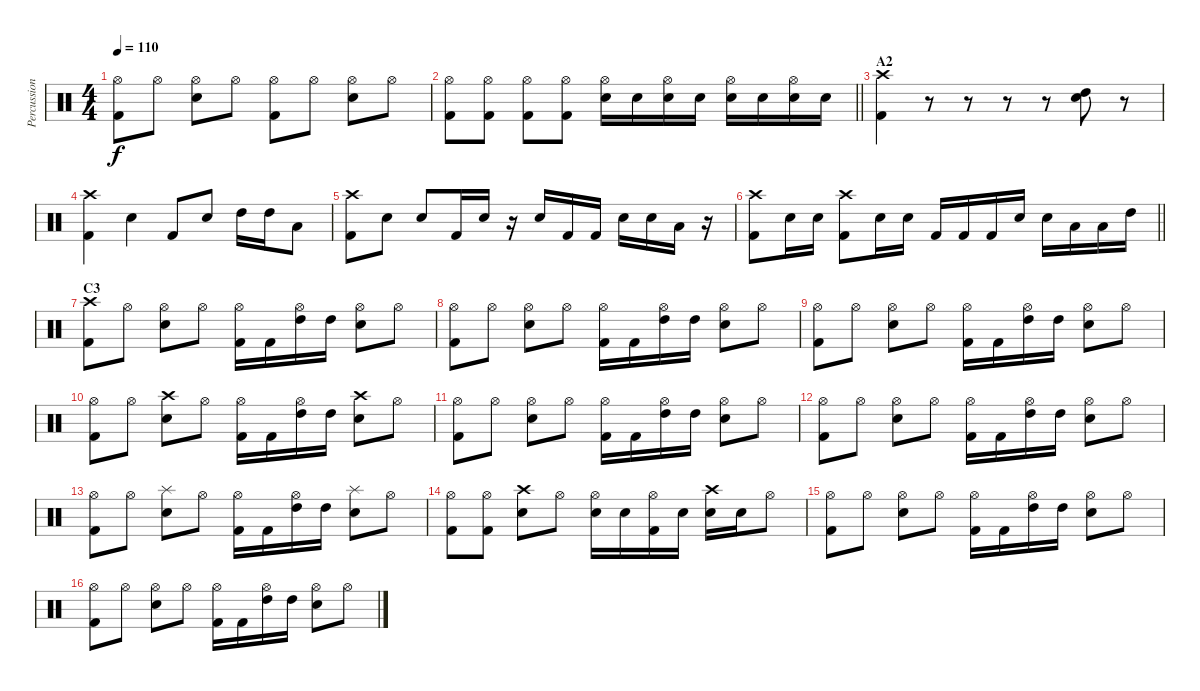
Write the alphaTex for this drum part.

\track ("Percussion" "Percussion") {instrument percussion}
\staff {score}
\articulation defaults
\ts (4 4)
\tempo 110
\clef neutral
\ks c
("Hi-Hat (open)" "Kick (hit) 2").8{dy f} "Hi-Hat (open)".8 ("Hi-Hat (open)" "Snare (hit) 2").8 "Hi-Hat (open)".8 ("Hi-Hat (open)" "Kick (hit) 2").8 "Hi-Hat (open)".8 ("Hi-Hat (open)" "Snare (hit) 2").8 "Hi-Hat (open)".8 |
\barLineRight lightlight
("Hi-Hat (open)" "Kick (hit) 2").8 ("Hi-Hat (open)" "Kick (hit) 2").8 ("Hi-Hat (open)" "Kick (hit) 2").8 ("Hi-Hat (open)" "Kick (hit) 2").8 ("Hi-Hat (open)" "Snare (hit) 2").16 "Snare (hit) 2".16 ("Hi-Hat (open)" "Snare (hit) 2").16 "Snare (hit) 2".16 ("Hi-Hat (open)" "Snare (hit) 2").16 "Snare (hit) 2".16 ("Hi-Hat (open)" "Snare (hit) 2").16 "Snare (hit) 2".16 |
\section ("" "A2")
("Crash high (hit)" "Kick (hit) 2").4 r.8 r.8 r.8 r.8 ("High Tom (hit)" "Snare (hit) 2").8 r.8 |
("Crash high (hit)" "Kick (hit) 2").4 "Snare (hit) 2".4 "Kick (hit) 2".8 "Snare (hit) 2".8 "High Tom (hit)".16 "High Tom (hit)".16 "Low Tom (hit)".8 |
("Crash high (hit)" "Kick (hit) 2").8 "Snare (hit) 2".8 "Snare (hit) 2".8 "Kick (hit) 2".16 "Snare (hit) 2".16 r.16 "Snare (hit) 2".16 "Kick (hit) 2".16 "Kick (hit) 2".16 "Snare (hit) 2".16 "Snare (hit) 2".16 "Low Tom (hit)".16 r.16 |
\barLineRight lightlight
("Crash high (hit)" "Kick (hit) 2").8 "Snare (hit) 2".16 "Snare (hit) 2".16 ("Crash high (hit)" "Kick (hit) 2").8 "Snare (hit) 2".16 "Snare (hit) 2".16 "Kick (hit) 2".16 "Kick (hit) 2".16 "Kick (hit) 2".16 "Snare (hit) 2".16 "Snare (hit) 2".16 "Low Tom (hit)".16 "Low Tom (hit)".16 "High Tom (hit)".16 |
\section ("" "C3")
("Crash high (hit)" "Kick (hit) 2").8 "Hi-Hat (open)".8 ("Hi-Hat (open)" "Snare (hit) 2").8 "Hi-Hat (open)".8 ("Hi-Hat (open)" "Kick (hit) 2").16 "Kick (hit) 2".16 ("Hi-Hat (open)" "High Tom (hit)").16 "High Tom (hit)".16 ("Hi-Hat (open)" "Snare (hit) 2").8 "Hi-Hat (open)".8 |
("Hi-Hat (open)" "Kick (hit) 2").8 "Hi-Hat (open)".8 ("Hi-Hat (open)" "Snare (hit) 2").8 "Hi-Hat (open)".8 ("Hi-Hat (open)" "Kick (hit) 2").16 "Kick (hit) 2".16 ("Hi-Hat (open)" "High Tom (hit)").16 "High Tom (hit)".16 ("Hi-Hat (open)" "Snare (hit) 2").8 "Hi-Hat (open)".8 |
("Hi-Hat (open)" "Kick (hit) 2").8 "Hi-Hat (open)".8 ("Hi-Hat (open)" "Snare (hit) 2").8 "Hi-Hat (open)".8 ("Hi-Hat (open)" "Kick (hit) 2").16 "Kick (hit) 2".16 ("Hi-Hat (open)" "High Tom (hit)").16 "High Tom (hit)".16 ("Hi-Hat (open)" "Snare (hit) 2").8 "Hi-Hat (open)".8 |
("Hi-Hat (open)" "Kick (hit) 2").8 "Hi-Hat (open)".8 ("Crash high (hit)" "Snare (hit) 2").8 "Hi-Hat (open)".8 ("Hi-Hat (open)" "Kick (hit) 2").16 "Kick (hit) 2".16 ("Hi-Hat (open)" "High Tom (hit)").16 "High Tom (hit)".16 ("Crash high (hit)" "Snare (hit) 2").8 "Hi-Hat (open)".8 |
("Hi-Hat (open)" "Kick (hit) 2").8 "Hi-Hat (open)".8 ("Hi-Hat (open)" "Snare (hit) 2").8 "Hi-Hat (open)".8 ("Hi-Hat (open)" "Kick (hit) 2").16 "Kick (hit) 2".16 ("Hi-Hat (open)" "High Tom (hit)").16 "High Tom (hit)".16 ("Hi-Hat (open)" "Snare (hit) 2").8 "Hi-Hat (open)".8 |
("Hi-Hat (open)" "Kick (hit) 2").8 "Hi-Hat (open)".8 ("Hi-Hat (open)" "Snare (hit) 2").8 "Hi-Hat (open)".8 ("Hi-Hat (open)" "Kick (hit) 2").16 "Kick (hit) 2".16 ("Hi-Hat (open)" "High Tom (hit)").16 "High Tom (hit)".16 ("Hi-Hat (open)" "Snare (hit) 2").8 "Hi-Hat (open)".8 |
("Hi-Hat (open)" "Kick (hit) 2").8 "Hi-Hat (open)".8 ("Splash (hit)" "Snare (hit) 2").8 "Hi-Hat (open)".8 ("Hi-Hat (open)" "Kick (hit) 2").16 "Kick (hit) 2".16 ("Hi-Hat (open)" "High Tom (hit)").16 "High Tom (hit)".16 ("Splash (hit)" "Snare (hit) 2").8 "Hi-Hat (open)".8 |
("Hi-Hat (open)" "Kick (hit) 2").8 ("Hi-Hat (open)" "Kick (hit) 2").8 ("Crash high (hit)" "Snare (hit) 2").8 "Hi-Hat (open)".8 ("Hi-Hat (open)" "Snare (hit) 2").16 "Snare (hit) 2".16 ("Hi-Hat (open)" "Kick (hit) 2").16 "Snare (hit) 2".16 ("Crash high (hit)" "Snare (hit) 2").16 "Snare (hit) 2".16 "Hi-Hat (open)".8 |
("Hi-Hat (open)" "Kick (hit) 2").8 "Hi-Hat (open)".8 ("Hi-Hat (open)" "Snare (hit) 2").8 "Hi-Hat (open)".8 ("Hi-Hat (open)" "Kick (hit) 2").16 "Kick (hit) 2".16 ("Hi-Hat (open)" "High Tom (hit)").16 "High Tom (hit)".16 ("Hi-Hat (open)" "Snare (hit) 2").8 "Hi-Hat (open)".8 |
("Hi-Hat (open)" "Kick (hit) 2").8 "Hi-Hat (open)".8 ("Hi-Hat (open)" "Snare (hit) 2").8 "Hi-Hat (open)".8 ("Hi-Hat (open)" "Kick (hit) 2").16 "Kick (hit) 2".16 ("Hi-Hat (open)" "High Tom (hit)").16 "High Tom (hit)".16 ("Hi-Hat (open)" "Snare (hit) 2").8 "Hi-Hat (open)".8
